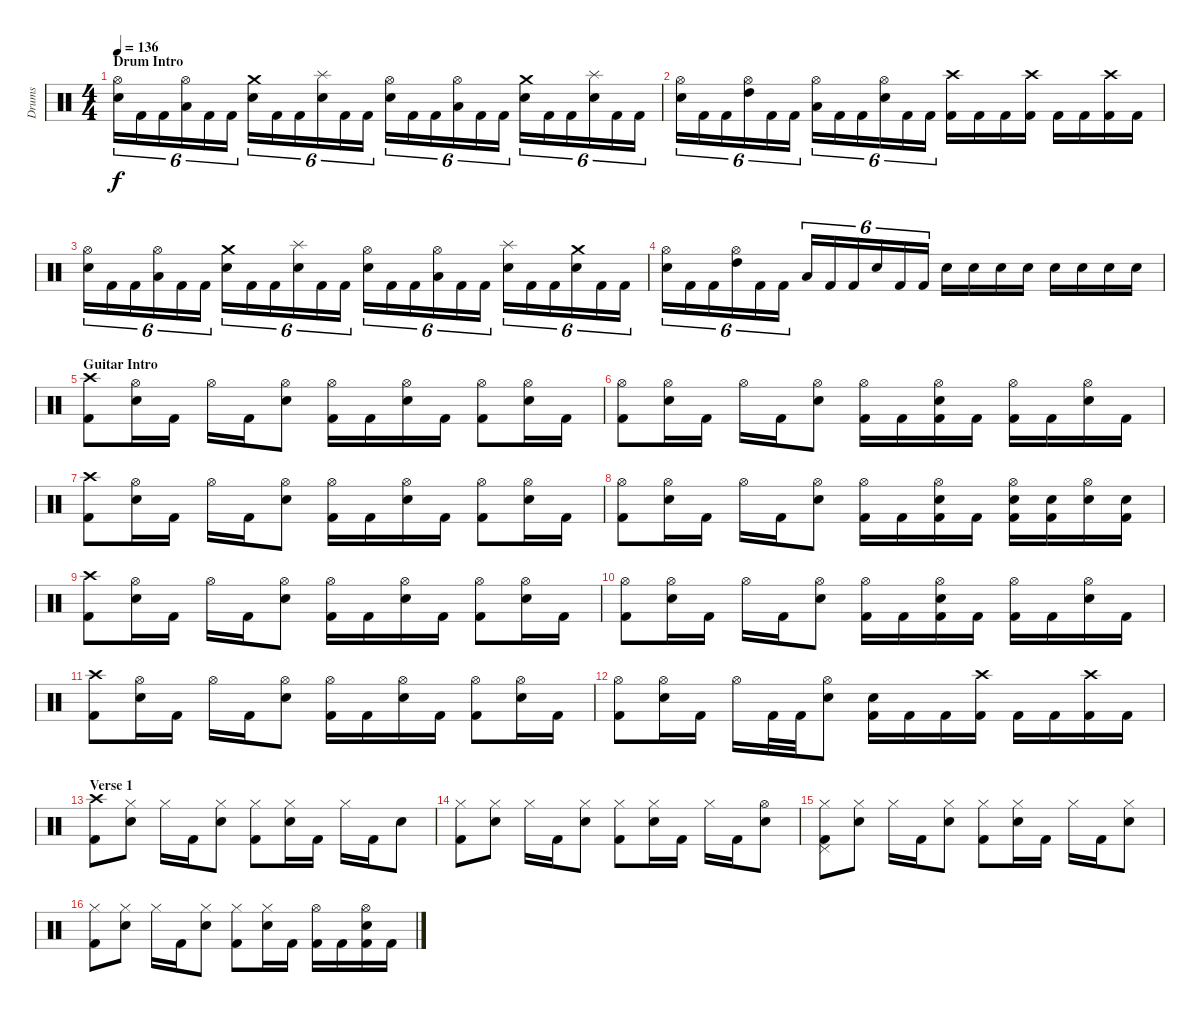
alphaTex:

\track ("Drums" "Drums") {instrument percussion}
\staff {score}
\articulation defaults
\ts (4 4)
\section ("" "Drum Intro")
\tempo 136
\clef neutral
\ks c
("Hi-Hat (open)" "Snare (hit) 2").16{tu (6 4) dy f} "Kick (hit) 2".16{tu (6 4)} "Kick (hit) 2".16{tu (6 4)} ("Hi-Hat (open)" "Low Floor Tom (hit)").16{tu (6 4)} "Kick (hit) 2".16{tu (6 4)} "Kick (hit) 2".16{tu (6 4)} ("Crash medium (hit)" "Snare (hit) 2").16{tu (6 4)} "Kick (hit) 2".16{tu (6 4)} "Kick (hit) 2".16{tu (6 4)} ("Splash (hit)" "Snare (hit) 2").16{tu (6 4)} "Kick (hit) 2".16{tu (6 4)} "Kick (hit) 2".16{tu (6 4)} ("Hi-Hat (open)" "Snare (hit) 2").16{tu (6 4)} "Kick (hit) 2".16{tu (6 4)} "Kick (hit) 2".16{tu (6 4)} ("Hi-Hat (open)" "Low Floor Tom (hit)").16{tu (6 4)} "Kick (hit) 2".16{tu (6 4)} "Kick (hit) 2".16{tu (6 4)} ("Crash medium (hit)" "Snare (hit) 2").16{tu (6 4)} "Kick (hit) 2".16{tu (6 4)} "Kick (hit) 2".16{tu (6 4)} ("Splash (hit)" "Snare (hit) 2").16{tu (6 4)} "Kick (hit) 2".16{tu (6 4)} "Kick (hit) 2".16{tu (6 4)} |
("Hi-Hat (open)" "Snare (hit) 2").16{tu (6 4)} "Kick (hit) 2".16{tu (6 4)} "Kick (hit) 2".16{tu (6 4)} ("Hi-Hat (open)" "High Tom (hit)").16{tu (6 4)} "Kick (hit) 2".16{tu (6 4)} "Kick (hit) 2".16{tu (6 4)} ("Hi-Hat (open)" "Low Tom (hit)").16{tu (6 4)} "Kick (hit) 2".16{tu (6 4)} "Kick (hit) 2".16{tu (6 4)} ("Hi-Hat (open)" "Snare (hit) 2").16{tu (6 4)} "Kick (hit) 2".16{tu (6 4)} "Kick (hit) 2".16{tu (6 4)} ("Crash high (hit)" "Kick (hit) 2").16 "Kick (hit) 2".16 "Kick (hit) 2".16 ("Crash high (hit)" "Kick (hit) 2").16 "Kick (hit) 2".16 "Kick (hit) 2".16 ("Crash high (hit)" "Kick (hit) 2").16 "Kick (hit) 2".16 |
("Hi-Hat (open)" "Snare (hit) 2").16{tu (6 4)} "Kick (hit) 2".16{tu (6 4)} "Kick (hit) 2".16{tu (6 4)} ("Hi-Hat (open)" "Low Floor Tom (hit)").16{tu (6 4)} "Kick (hit) 2".16{tu (6 4)} "Kick (hit) 2".16{tu (6 4)} ("Crash medium (hit)" "Snare (hit) 2").16{tu (6 4)} "Kick (hit) 2".16{tu (6 4)} "Kick (hit) 2".16{tu (6 4)} ("Splash (hit)" "Snare (hit) 2").16{tu (6 4)} "Kick (hit) 2".16{tu (6 4)} "Kick (hit) 2".16{tu (6 4)} ("Hi-Hat (open)" "Snare (hit) 2").16{tu (6 4)} "Kick (hit) 2".16{tu (6 4)} "Kick (hit) 2".16{tu (6 4)} ("Hi-Hat (open)" "Low Floor Tom (hit)").16{tu (6 4)} "Kick (hit) 2".16{tu (6 4)} "Kick (hit) 2".16{tu (6 4)} ("Splash (hit)" "Snare (hit) 2").16{tu (6 4)} "Kick (hit) 2".16{tu (6 4)} "Kick (hit) 2".16{tu (6 4)} ("Crash medium (hit)" "Snare (hit) 2").16{tu (6 4)} "Kick (hit) 2".16{tu (6 4)} "Kick (hit) 2".16{tu (6 4)} |
("Hi-Hat (open)" "Snare (hit) 2").16{tu (6 4)} "Kick (hit) 2".16{tu (6 4)} "Kick (hit) 2".16{tu (6 4)} ("Hi-Hat (open)" "High Tom (hit)").16{tu (6 4)} "Kick (hit) 2".16{tu (6 4)} "Kick (hit) 2".16{tu (6 4)} "Low Tom (hit)".16{tu (6 4)} "Kick (hit) 2".16{tu (6 4)} "Kick (hit) 2".16{tu (6 4)} "Snare (hit) 2".16{tu (6 4)} "Kick (hit) 2".16{tu (6 4)} "Kick (hit) 2".16{tu (6 4)} "Snare (hit) 2".16 "Snare (hit) 2".16 "Snare (hit) 2".16 "Snare (hit) 2".16 "Snare (hit) 2".16 "Snare (hit) 2".16 "Snare (hit) 2".16 "Snare (hit) 2".16 |
\section ("" "Guitar Intro")
("Crash high (hit)" "Kick (hit) 2").8 ("Hi-Hat (open)" "Snare (hit) 2").16 "Kick (hit) 2".16 "Hi-Hat (open)".16 "Kick (hit) 2".16 ("Hi-Hat (open)" "Snare (hit) 2").8 ("Hi-Hat (open)" "Kick (hit) 2").16 "Kick (hit) 2".16 ("Hi-Hat (open)" "Snare (hit) 2").16 "Kick (hit) 2".16 ("Hi-Hat (open)" "Kick (hit) 2").8 ("Hi-Hat (open)" "Snare (hit) 2").16 "Kick (hit) 2".16 |
("Hi-Hat (open)" "Kick (hit) 2").8 ("Hi-Hat (open)" "Snare (hit) 2").16 "Kick (hit) 2".16 "Hi-Hat (open)".16 "Kick (hit) 2".16 ("Hi-Hat (open)" "Snare (hit) 2").8 ("Hi-Hat (open)" "Kick (hit) 2").16 "Kick (hit) 2".16 ("Hi-Hat (open)" "Snare (hit) 2" "Kick (hit) 2").16 "Kick (hit) 2".16 ("Hi-Hat (open)" "Kick (hit) 2").16 "Kick (hit) 2".16 ("Hi-Hat (open)" "Snare (hit) 2").16 "Kick (hit) 2".16 |
("Crash high (hit)" "Kick (hit) 2").8 ("Hi-Hat (open)" "Snare (hit) 2").16 "Kick (hit) 2".16 "Hi-Hat (open)".16 "Kick (hit) 2".16 ("Hi-Hat (open)" "Snare (hit) 2").8 ("Hi-Hat (open)" "Kick (hit) 2").16 "Kick (hit) 2".16 ("Hi-Hat (open)" "Snare (hit) 2").16 "Kick (hit) 2".16 ("Hi-Hat (open)" "Kick (hit) 2").8 ("Hi-Hat (open)" "Snare (hit) 2").16 "Kick (hit) 2".16 |
("Hi-Hat (open)" "Kick (hit) 2").8 ("Hi-Hat (open)" "Snare (hit) 2").16 "Kick (hit) 2".16 "Hi-Hat (open)".16 "Kick (hit) 2".16 ("Hi-Hat (open)" "Snare (hit) 2").8 ("Hi-Hat (open)" "Kick (hit) 2").16 "Kick (hit) 2".16 ("Hi-Hat (open)" "Snare (hit) 2" "Kick (hit) 2").16 "Kick (hit) 2".16 ("Hi-Hat (open)" "Snare (hit) 2" "Kick (hit) 2").16 ("Snare (hit) 2" "Kick (hit) 2").16 ("Hi-Hat (open)" "Snare (hit) 2").16 ("Snare (hit) 2" "Kick (hit) 2").16 |
("Crash high (hit)" "Kick (hit) 2").8 ("Hi-Hat (open)" "Snare (hit) 2").16 "Kick (hit) 2".16 "Hi-Hat (open)".16 "Kick (hit) 2".16 ("Hi-Hat (open)" "Snare (hit) 2").8 ("Hi-Hat (open)" "Kick (hit) 2").16 "Kick (hit) 2".16 ("Hi-Hat (open)" "Snare (hit) 2").16 "Kick (hit) 2".16 ("Hi-Hat (open)" "Kick (hit) 2").8 ("Hi-Hat (open)" "Snare (hit) 2").16 "Kick (hit) 2".16 |
("Hi-Hat (open)" "Kick (hit) 2").8 ("Hi-Hat (open)" "Snare (hit) 2").16 "Kick (hit) 2".16 "Hi-Hat (open)".16 "Kick (hit) 2".16 ("Hi-Hat (open)" "Snare (hit) 2").8 ("Hi-Hat (open)" "Kick (hit) 2").16 "Kick (hit) 2".16 ("Hi-Hat (open)" "Snare (hit) 2" "Kick (hit) 2").16 "Kick (hit) 2".16 ("Hi-Hat (open)" "Kick (hit) 2").16 "Kick (hit) 2".16 ("Hi-Hat (open)" "Snare (hit) 2").16 "Kick (hit) 2".16 |
("Crash high (hit)" "Kick (hit) 2").8 ("Hi-Hat (open)" "Snare (hit) 2").16 "Kick (hit) 2".16 "Hi-Hat (open)".16 "Kick (hit) 2".16 ("Hi-Hat (open)" "Snare (hit) 2").8 ("Hi-Hat (open)" "Kick (hit) 2").16 "Kick (hit) 2".16 ("Hi-Hat (open)" "Snare (hit) 2").16 "Kick (hit) 2".16 ("Hi-Hat (open)" "Kick (hit) 2").8 ("Hi-Hat (open)" "Snare (hit) 2").16 "Kick (hit) 2".16 |
("Hi-Hat (open)" "Kick (hit) 2").8 ("Hi-Hat (open)" "Snare (hit) 2").16 "Kick (hit) 2".16 "Hi-Hat (open)".16 "Kick (hit) 2".32 "Kick (hit) 2".32 ("Hi-Hat (open)" "Snare (hit) 2").8 ("Snare (hit) 2" "Kick (hit) 2").16 "Kick (hit) 2".16 "Kick (hit) 2".16 ("Crash high (hit)" "Kick (hit) 2").16 "Kick (hit) 2".16 "Kick (hit) 2".16 ("Crash high (hit)" "Kick (hit) 2").16 "Kick (hit) 2".16 |
\section ("" "Verse 1")
("Crash high (hit)" "Kick (hit) 2").8 ("Hi-Hat (closed)" "Snare (hit) 2").8 "Hi-Hat (closed)".16 "Kick (hit) 2".16 ("Hi-Hat (closed)" "Snare (hit) 2").8 ("Hi-Hat (closed)" "Kick (hit) 2").8 ("Hi-Hat (closed)" "Snare (hit) 2").16 "Kick (hit) 2".16 "Hi-Hat (closed)".16 "Kick (hit) 2".16 "Snare (hit) 2".8 |
("Hi-Hat (closed)" "Kick (hit) 2").8 ("Hi-Hat (closed)" "Snare (hit) 2").8 "Hi-Hat (closed)".16 "Kick (hit) 2".16 ("Hi-Hat (closed)" "Snare (hit) 2").8 ("Hi-Hat (closed)" "Kick (hit) 2").8 ("Hi-Hat (closed)" "Snare (hit) 2").16 "Kick (hit) 2".16 "Hi-Hat (closed)".16 "Kick (hit) 2".16 ("Hi-Hat (open)" "Snare (hit) 2").8 |
("Hi-Hat (closed)" "Pedal Hi-Hat (hit)" "Kick (hit) 2").8 ("Hi-Hat (closed)" "Snare (hit) 2").8 "Hi-Hat (closed)".16 "Kick (hit) 2".16 ("Hi-Hat (closed)" "Snare (hit) 2").8 ("Hi-Hat (closed)" "Kick (hit) 2").8 ("Hi-Hat (closed)" "Snare (hit) 2").16 "Kick (hit) 2".16 "Hi-Hat (closed)".16 "Kick (hit) 2".16 ("Hi-Hat (closed)" "Snare (hit) 2").8 |
("Hi-Hat (closed)" "Kick (hit) 2").8 ("Hi-Hat (closed)" "Snare (hit) 2").8 "Hi-Hat (closed)".16 "Kick (hit) 2".16 ("Hi-Hat (closed)" "Snare (hit) 2").8 ("Hi-Hat (closed)" "Kick (hit) 2").8 ("Hi-Hat (closed)" "Snare (hit) 2").16 "Kick (hit) 2".16 ("Hi-Hat (open)" "Kick (hit) 2").16 "Kick (hit) 2".16 ("Hi-Hat (open)" "Snare (hit) 2" "Kick (hit) 2").16 "Kick (hit) 2".16
